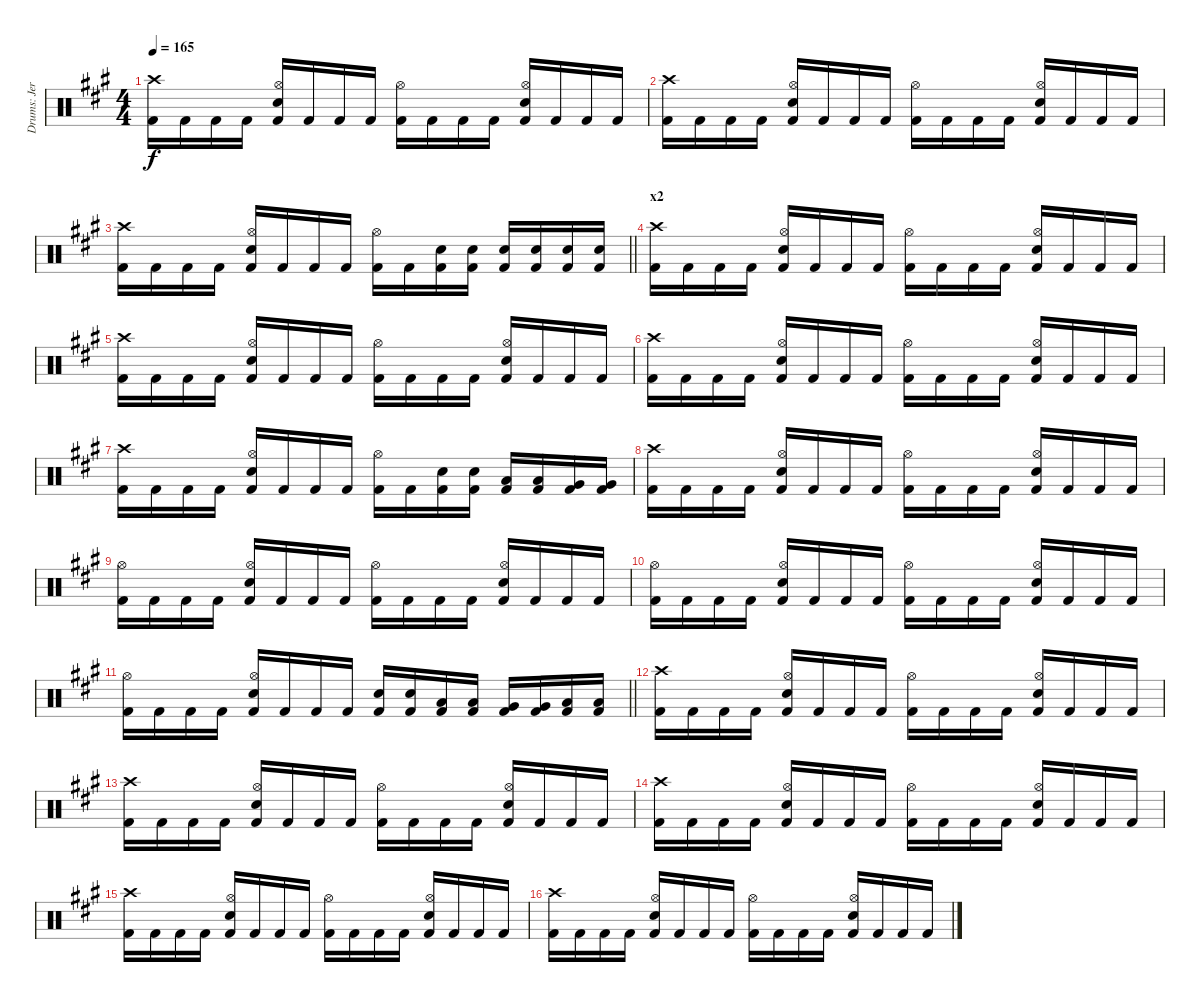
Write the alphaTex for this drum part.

\track ("Drums: Jere Luokkamäki" "Drums: Jer") {instrument percussion}
\staff {score}
\articulation defaults
\ts (4 4)
\tempo 165
\clef neutral
\ks f#minor
("Crash high (hit)" "Kick (hit) 2").16{dy f} "Kick (hit) 2".16 "Kick (hit) 2".16 "Kick (hit) 2".16 ("Hi-Hat (open)" "Electric Snare (hit)" "Kick (hit) 2").16 "Kick (hit) 2".16 "Kick (hit) 2".16 "Kick (hit) 2".16 ("Hi-Hat (open)" "Kick (hit) 2").16 "Kick (hit) 2".16 "Kick (hit) 2".16 "Kick (hit) 2".16 ("Hi-Hat (open)" "Electric Snare (hit)" "Kick (hit) 2").16 "Kick (hit) 2".16 "Kick (hit) 2".16 "Kick (hit) 2".16 |
("Crash high (hit)" "Kick (hit) 2").16 "Kick (hit) 2".16 "Kick (hit) 2".16 "Kick (hit) 2".16 ("Hi-Hat (open)" "Electric Snare (hit)" "Kick (hit) 2").16 "Kick (hit) 2".16 "Kick (hit) 2".16 "Kick (hit) 2".16 ("Hi-Hat (open)" "Kick (hit) 2").16 "Kick (hit) 2".16 "Kick (hit) 2".16 "Kick (hit) 2".16 ("Hi-Hat (open)" "Electric Snare (hit)" "Kick (hit) 2").16 "Kick (hit) 2".16 "Kick (hit) 2".16 "Kick (hit) 2".16 |
\barLineRight lightlight
("Crash high (hit)" "Kick (hit) 2").16 "Kick (hit) 2".16 "Kick (hit) 2".16 "Kick (hit) 2".16 ("Hi-Hat (open)" "Electric Snare (hit)" "Kick (hit) 2").16 "Kick (hit) 2".16 "Kick (hit) 2".16 "Kick (hit) 2".16 ("Hi-Hat (open)" "Kick (hit) 2").16 "Kick (hit) 2".16 ("Electric Snare (hit)" "Kick (hit) 2").16 ("Electric Snare (hit)" "Kick (hit) 2").16 ("Electric Snare (hit)" "Kick (hit) 2").16 ("Electric Snare (hit)" "Kick (hit) 2").16 ("Electric Snare (hit)" "Kick (hit) 2").16 ("Electric Snare (hit)" "Kick (hit) 2").16 |
\section ("" "x2")
("Crash high (hit)" "Kick (hit) 2").16 "Kick (hit) 2".16 "Kick (hit) 2".16 "Kick (hit) 2".16 ("Hi-Hat (open)" "Electric Snare (hit)" "Kick (hit) 2").16 "Kick (hit) 2".16 "Kick (hit) 2".16 "Kick (hit) 2".16 ("Hi-Hat (open)" "Kick (hit) 2").16 "Kick (hit) 2".16 "Kick (hit) 2".16 "Kick (hit) 2".16 ("Hi-Hat (open)" "Electric Snare (hit)" "Kick (hit) 2").16 "Kick (hit) 2".16 "Kick (hit) 2".16 "Kick (hit) 2".16 |
("Crash high (hit)" "Kick (hit) 2").16 "Kick (hit) 2".16 "Kick (hit) 2".16 "Kick (hit) 2".16 ("Hi-Hat (open)" "Electric Snare (hit)" "Kick (hit) 2").16 "Kick (hit) 2".16 "Kick (hit) 2".16 "Kick (hit) 2".16 ("Hi-Hat (open)" "Kick (hit) 2").16 "Kick (hit) 2".16 "Kick (hit) 2".16 "Kick (hit) 2".16 ("Hi-Hat (open)" "Electric Snare (hit)" "Kick (hit) 2").16 "Kick (hit) 2".16 "Kick (hit) 2".16 "Kick (hit) 2".16 |
("Crash high (hit)" "Kick (hit) 2").16 "Kick (hit) 2".16 "Kick (hit) 2".16 "Kick (hit) 2".16 ("Hi-Hat (open)" "Electric Snare (hit)" "Kick (hit) 2").16 "Kick (hit) 2".16 "Kick (hit) 2".16 "Kick (hit) 2".16 ("Hi-Hat (open)" "Kick (hit) 2").16 "Kick (hit) 2".16 "Kick (hit) 2".16 "Kick (hit) 2".16 ("Hi-Hat (open)" "Electric Snare (hit)" "Kick (hit) 2").16 "Kick (hit) 2".16 "Kick (hit) 2".16 "Kick (hit) 2".16 |
("Crash high (hit)" "Kick (hit) 2").16 "Kick (hit) 2".16 "Kick (hit) 2".16 "Kick (hit) 2".16 ("Hi-Hat (open)" "Electric Snare (hit)" "Kick (hit) 2").16 "Kick (hit) 2".16 "Kick (hit) 2".16 "Kick (hit) 2".16 ("Hi-Hat (open)" "Kick (hit) 2").16 "Kick (hit) 2".16 ("Electric Snare (hit)" "Kick (hit) 2").16 ("Electric Snare (hit)" "Kick (hit) 2").16 ("Low Tom (hit)" "Kick (hit) 2").16 ("Low Tom (hit)" "Kick (hit) 2").16 ("Very Low Tom (hit)" "Kick (hit) 2").16 ("Very Low Tom (hit)" "Kick (hit) 2").16 |
("Crash high (hit)" "Kick (hit) 2").16 "Kick (hit) 2".16 "Kick (hit) 2".16 "Kick (hit) 2".16 ("Hi-Hat (open)" "Electric Snare (hit)" "Kick (hit) 2").16 "Kick (hit) 2".16 "Kick (hit) 2".16 "Kick (hit) 2".16 ("Hi-Hat (open)" "Kick (hit) 2").16 "Kick (hit) 2".16 "Kick (hit) 2".16 "Kick (hit) 2".16 ("Hi-Hat (open)" "Electric Snare (hit)" "Kick (hit) 2").16 "Kick (hit) 2".16 "Kick (hit) 2".16 "Kick (hit) 2".16 |
("Hi-Hat (open)" "Kick (hit) 2").16 "Kick (hit) 2".16 "Kick (hit) 2".16 "Kick (hit) 2".16 ("Hi-Hat (open)" "Electric Snare (hit)" "Kick (hit) 2").16 "Kick (hit) 2".16 "Kick (hit) 2".16 "Kick (hit) 2".16 ("Hi-Hat (open)" "Kick (hit) 2").16 "Kick (hit) 2".16 "Kick (hit) 2".16 "Kick (hit) 2".16 ("Hi-Hat (open)" "Electric Snare (hit)" "Kick (hit) 2").16 "Kick (hit) 2".16 "Kick (hit) 2".16 "Kick (hit) 2".16 |
("Hi-Hat (open)" "Kick (hit) 2").16 "Kick (hit) 2".16 "Kick (hit) 2".16 "Kick (hit) 2".16 ("Hi-Hat (open)" "Electric Snare (hit)" "Kick (hit) 2").16 "Kick (hit) 2".16 "Kick (hit) 2".16 "Kick (hit) 2".16 ("Hi-Hat (open)" "Kick (hit) 2").16 "Kick (hit) 2".16 "Kick (hit) 2".16 "Kick (hit) 2".16 ("Hi-Hat (open)" "Electric Snare (hit)" "Kick (hit) 2").16 "Kick (hit) 2".16 "Kick (hit) 2".16 "Kick (hit) 2".16 |
\barLineRight lightlight
("Hi-Hat (open)" "Kick (hit) 2").16 "Kick (hit) 2".16 "Kick (hit) 2".16 "Kick (hit) 2".16 ("Hi-Hat (open)" "Electric Snare (hit)" "Kick (hit) 2").16 "Kick (hit) 2".16 "Kick (hit) 2".16 "Kick (hit) 2".16 ("Electric Snare (hit)" "Kick (hit) 2").16 ("Electric Snare (hit)" "Kick (hit) 2").16 ("Low Tom (hit)" "Kick (hit) 2").16 ("Low Tom (hit)" "Kick (hit) 2").16 ("Very Low Tom (hit)" "Kick (hit) 2").16 ("Very Low Tom (hit)" "Kick (hit) 2").16 ("Low Tom (hit)" "Kick (hit) 2").16 ("Low Tom (hit)" "Kick (hit) 2").16 |
("Crash high (hit)" "Kick (hit) 2").16 "Kick (hit) 2".16 "Kick (hit) 2".16 "Kick (hit) 2".16 ("Hi-Hat (open)" "Electric Snare (hit)" "Kick (hit) 2").16 "Kick (hit) 2".16 "Kick (hit) 2".16 "Kick (hit) 2".16 ("Hi-Hat (open)" "Kick (hit) 2").16 "Kick (hit) 2".16 "Kick (hit) 2".16 "Kick (hit) 2".16 ("Hi-Hat (open)" "Electric Snare (hit)" "Kick (hit) 2").16 "Kick (hit) 2".16 "Kick (hit) 2".16 "Kick (hit) 2".16 |
("Crash high (hit)" "Kick (hit) 2").16 "Kick (hit) 2".16 "Kick (hit) 2".16 "Kick (hit) 2".16 ("Hi-Hat (open)" "Electric Snare (hit)" "Kick (hit) 2").16 "Kick (hit) 2".16 "Kick (hit) 2".16 "Kick (hit) 2".16 ("Hi-Hat (open)" "Kick (hit) 2").16 "Kick (hit) 2".16 "Kick (hit) 2".16 "Kick (hit) 2".16 ("Hi-Hat (open)" "Electric Snare (hit)" "Kick (hit) 2").16 "Kick (hit) 2".16 "Kick (hit) 2".16 "Kick (hit) 2".16 |
("Crash high (hit)" "Kick (hit) 2").16 "Kick (hit) 2".16 "Kick (hit) 2".16 "Kick (hit) 2".16 ("Hi-Hat (open)" "Electric Snare (hit)" "Kick (hit) 2").16 "Kick (hit) 2".16 "Kick (hit) 2".16 "Kick (hit) 2".16 ("Hi-Hat (open)" "Kick (hit) 2").16 "Kick (hit) 2".16 "Kick (hit) 2".16 "Kick (hit) 2".16 ("Hi-Hat (open)" "Electric Snare (hit)" "Kick (hit) 2").16 "Kick (hit) 2".16 "Kick (hit) 2".16 "Kick (hit) 2".16 |
("Crash high (hit)" "Kick (hit) 2").16 "Kick (hit) 2".16 "Kick (hit) 2".16 "Kick (hit) 2".16 ("Hi-Hat (open)" "Electric Snare (hit)" "Kick (hit) 2").16 "Kick (hit) 2".16 "Kick (hit) 2".16 "Kick (hit) 2".16 ("Hi-Hat (open)" "Kick (hit) 2").16 "Kick (hit) 2".16 "Kick (hit) 2".16 "Kick (hit) 2".16 ("Hi-Hat (open)" "Electric Snare (hit)" "Kick (hit) 2").16 "Kick (hit) 2".16 "Kick (hit) 2".16 "Kick (hit) 2".16 |
("Crash high (hit)" "Kick (hit) 2").16 "Kick (hit) 2".16 "Kick (hit) 2".16 "Kick (hit) 2".16 ("Hi-Hat (open)" "Electric Snare (hit)" "Kick (hit) 2").16 "Kick (hit) 2".16 "Kick (hit) 2".16 "Kick (hit) 2".16 ("Hi-Hat (open)" "Kick (hit) 2").16 "Kick (hit) 2".16 "Kick (hit) 2".16 "Kick (hit) 2".16 ("Hi-Hat (open)" "Electric Snare (hit)" "Kick (hit) 2").16 "Kick (hit) 2".16 "Kick (hit) 2".16 "Kick (hit) 2".16
